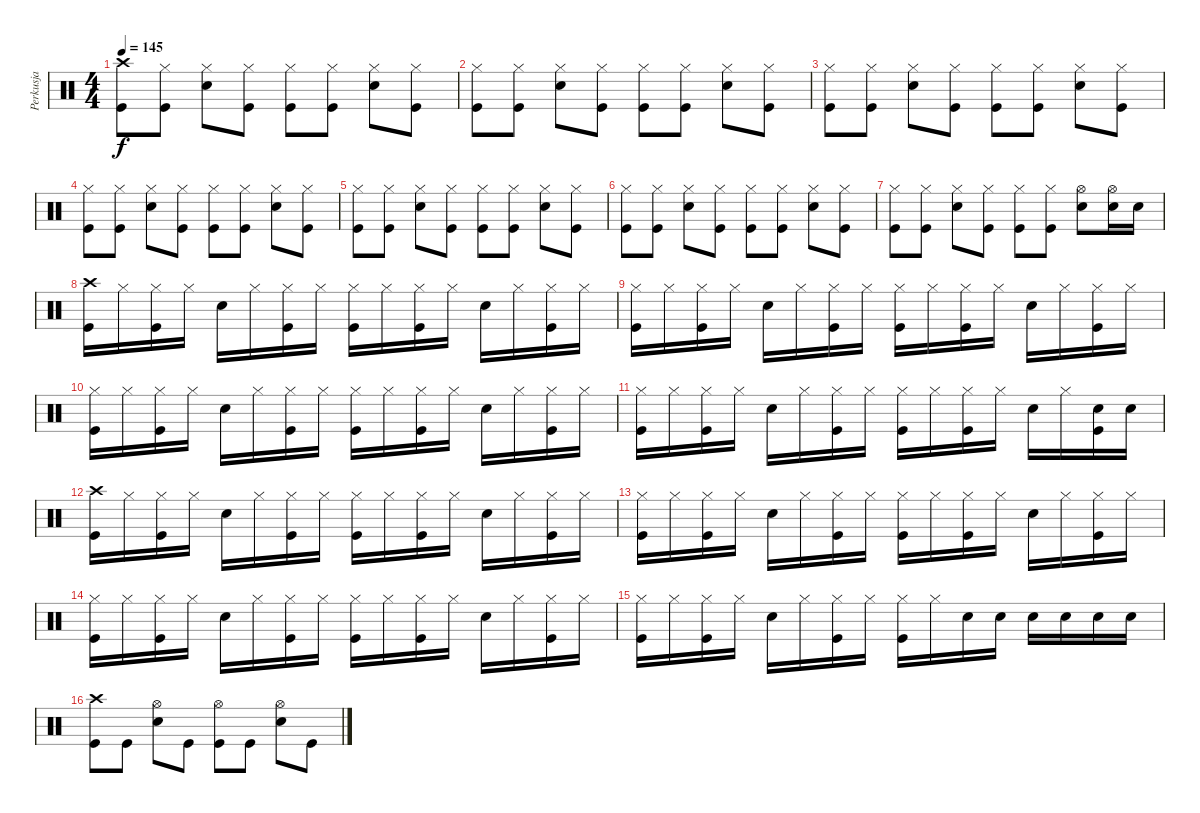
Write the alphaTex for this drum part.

\track ("Perkusja" "Perkusja") {instrument percussion}
\staff {score}
\articulation defaults
\ts (4 4)
\tempo 145
\clef neutral
\ks c
("Crash high (hit)" "Kick (hit)").8{dy f} ("Hi-Hat (closed)" "Kick (hit)").8 ("Hi-Hat (closed)" "Snare (hit) 2").8 ("Hi-Hat (closed)" "Kick (hit)").8 ("Hi-Hat (closed)" "Kick (hit)").8 ("Hi-Hat (closed)" "Kick (hit)").8 ("Hi-Hat (closed)" "Snare (hit) 2").8 ("Hi-Hat (closed)" "Kick (hit)").8 |
("Hi-Hat (closed)" "Kick (hit)").8 ("Hi-Hat (closed)" "Kick (hit)").8 ("Hi-Hat (closed)" "Snare (hit) 2").8 ("Hi-Hat (closed)" "Kick (hit)").8 ("Hi-Hat (closed)" "Kick (hit)").8 ("Hi-Hat (closed)" "Kick (hit)").8 ("Hi-Hat (closed)" "Snare (hit) 2").8 ("Hi-Hat (closed)" "Kick (hit)").8 |
("Hi-Hat (closed)" "Kick (hit)").8 ("Hi-Hat (closed)" "Kick (hit)").8 ("Hi-Hat (closed)" "Snare (hit) 2").8 ("Hi-Hat (closed)" "Kick (hit)").8 ("Hi-Hat (closed)" "Kick (hit)").8 ("Hi-Hat (closed)" "Kick (hit)").8 ("Hi-Hat (closed)" "Snare (hit) 2").8 ("Hi-Hat (closed)" "Kick (hit)").8 |
("Hi-Hat (closed)" "Kick (hit)").8 ("Hi-Hat (closed)" "Kick (hit)").8 ("Hi-Hat (closed)" "Snare (hit) 2").8 ("Hi-Hat (closed)" "Kick (hit)").8 ("Hi-Hat (closed)" "Kick (hit)").8 ("Hi-Hat (closed)" "Kick (hit)").8 ("Hi-Hat (closed)" "Snare (hit) 2").8 ("Hi-Hat (closed)" "Kick (hit)").8 |
("Hi-Hat (closed)" "Kick (hit)").8 ("Hi-Hat (closed)" "Kick (hit)").8 ("Hi-Hat (closed)" "Snare (hit) 2").8 ("Hi-Hat (closed)" "Kick (hit)").8 ("Hi-Hat (closed)" "Kick (hit)").8 ("Hi-Hat (closed)" "Kick (hit)").8 ("Hi-Hat (closed)" "Snare (hit) 2").8 ("Hi-Hat (closed)" "Kick (hit)").8 |
("Hi-Hat (closed)" "Kick (hit)").8 ("Hi-Hat (closed)" "Kick (hit)").8 ("Hi-Hat (closed)" "Snare (hit) 2").8 ("Hi-Hat (closed)" "Kick (hit)").8 ("Hi-Hat (closed)" "Kick (hit)").8 ("Hi-Hat (closed)" "Kick (hit)").8 ("Hi-Hat (closed)" "Snare (hit) 2").8 ("Hi-Hat (closed)" "Kick (hit)").8 |
("Hi-Hat (closed)" "Kick (hit)").8 ("Hi-Hat (closed)" "Kick (hit)").8 ("Hi-Hat (closed)" "Snare (hit) 2").8 ("Hi-Hat (closed)" "Kick (hit)").8 ("Hi-Hat (closed)" "Kick (hit)").8 ("Hi-Hat (closed)" "Kick (hit)").8 ("Hi-Hat (open)" "Snare (hit) 2").8 ("Hi-Hat (open)" "Snare (hit) 2").16 "Snare (hit) 2".16 |
("Crash high (hit)" "Kick (hit)").16 "Hi-Hat (closed)".16 ("Hi-Hat (closed)" "Kick (hit)").16 "Hi-Hat (closed)".16 "Snare (hit) 2".16 "Hi-Hat (closed)".16 ("Hi-Hat (closed)" "Kick (hit)").16 "Hi-Hat (closed)".16 ("Hi-Hat (closed)" "Kick (hit)").16 "Hi-Hat (closed)".16 ("Hi-Hat (closed)" "Kick (hit)").16 "Hi-Hat (closed)".16 "Snare (hit) 2".16 "Hi-Hat (closed)".16 ("Hi-Hat (closed)" "Kick (hit)").16 "Hi-Hat (closed)".16 |
("Hi-Hat (closed)" "Kick (hit)").16 "Hi-Hat (closed)".16 ("Hi-Hat (closed)" "Kick (hit)").16 "Hi-Hat (closed)".16 "Snare (hit) 2".16 "Hi-Hat (closed)".16 ("Hi-Hat (closed)" "Kick (hit)").16 "Hi-Hat (closed)".16 ("Hi-Hat (closed)" "Kick (hit)").16 "Hi-Hat (closed)".16 ("Hi-Hat (closed)" "Kick (hit)").16 "Hi-Hat (closed)".16 "Snare (hit) 2".16 "Hi-Hat (closed)".16 ("Hi-Hat (closed)" "Kick (hit)").16 "Hi-Hat (closed)".16 |
("Hi-Hat (closed)" "Kick (hit)").16 "Hi-Hat (closed)".16 ("Hi-Hat (closed)" "Kick (hit)").16 "Hi-Hat (closed)".16 "Snare (hit) 2".16 "Hi-Hat (closed)".16 ("Hi-Hat (closed)" "Kick (hit)").16 "Hi-Hat (closed)".16 ("Hi-Hat (closed)" "Kick (hit)").16 "Hi-Hat (closed)".16 ("Hi-Hat (closed)" "Kick (hit)").16 "Hi-Hat (closed)".16 "Snare (hit) 2".16 "Hi-Hat (closed)".16 ("Hi-Hat (closed)" "Kick (hit)").16 "Hi-Hat (closed)".16 |
("Hi-Hat (closed)" "Kick (hit)").16 "Hi-Hat (closed)".16 ("Hi-Hat (closed)" "Kick (hit)").16 "Hi-Hat (closed)".16 "Snare (hit) 2".16 "Hi-Hat (closed)".16 ("Hi-Hat (closed)" "Kick (hit)").16 "Hi-Hat (closed)".16 ("Hi-Hat (closed)" "Kick (hit)").16 "Hi-Hat (closed)".16 ("Hi-Hat (closed)" "Kick (hit)").16 "Hi-Hat (closed)".16 "Snare (hit) 2".16 "Hi-Hat (closed)".16 ("Snare (hit) 2" "Kick (hit)").16 "Snare (hit) 2".16 |
("Crash high (hit)" "Kick (hit)").16 "Hi-Hat (closed)".16 ("Hi-Hat (closed)" "Kick (hit)").16 "Hi-Hat (closed)".16 "Snare (hit) 2".16 "Hi-Hat (closed)".16 ("Hi-Hat (closed)" "Kick (hit)").16 "Hi-Hat (closed)".16 ("Hi-Hat (closed)" "Kick (hit)").16 "Hi-Hat (closed)".16 ("Hi-Hat (closed)" "Kick (hit)").16 "Hi-Hat (closed)".16 "Snare (hit) 2".16 "Hi-Hat (closed)".16 ("Hi-Hat (closed)" "Kick (hit)").16 "Hi-Hat (closed)".16 |
("Hi-Hat (closed)" "Kick (hit)").16 "Hi-Hat (closed)".16 ("Hi-Hat (closed)" "Kick (hit)").16 "Hi-Hat (closed)".16 "Snare (hit) 2".16 "Hi-Hat (closed)".16 ("Hi-Hat (closed)" "Kick (hit)").16 "Hi-Hat (closed)".16 ("Hi-Hat (closed)" "Kick (hit)").16 "Hi-Hat (closed)".16 ("Hi-Hat (closed)" "Kick (hit)").16 "Hi-Hat (closed)".16 "Snare (hit) 2".16 "Hi-Hat (closed)".16 ("Hi-Hat (closed)" "Kick (hit)").16 "Hi-Hat (closed)".16 |
("Hi-Hat (closed)" "Kick (hit)").16 "Hi-Hat (closed)".16 ("Hi-Hat (closed)" "Kick (hit)").16 "Hi-Hat (closed)".16 "Snare (hit) 2".16 "Hi-Hat (closed)".16 ("Hi-Hat (closed)" "Kick (hit)").16 "Hi-Hat (closed)".16 ("Hi-Hat (closed)" "Kick (hit)").16 "Hi-Hat (closed)".16 ("Hi-Hat (closed)" "Kick (hit)").16 "Hi-Hat (closed)".16 "Snare (hit) 2".16 "Hi-Hat (closed)".16 ("Hi-Hat (closed)" "Kick (hit)").16 "Hi-Hat (closed)".16 |
("Hi-Hat (closed)" "Kick (hit)").16 "Hi-Hat (closed)".16 ("Hi-Hat (closed)" "Kick (hit)").16 "Hi-Hat (closed)".16 "Snare (hit) 2".16 "Hi-Hat (closed)".16 ("Hi-Hat (closed)" "Kick (hit)").16 "Hi-Hat (closed)".16 ("Hi-Hat (closed)" "Kick (hit)").16 "Hi-Hat (closed)".16 "Snare (hit) 2".16 "Snare (hit) 2".16 "Snare (hit) 2".16 "Snare (hit) 2".16 "Snare (hit) 2".16 "Snare (hit) 2".16 |
("Crash high (hit)" "Kick (hit)").8 "Kick (hit)".8 ("Hi-Hat (open)" "Snare (hit) 2").8 "Kick (hit)".8 ("Hi-Hat (open)" "Kick (hit)").8 "Kick (hit)".8 ("Hi-Hat (open)" "Snare (hit) 2").8 "Kick (hit)".8
